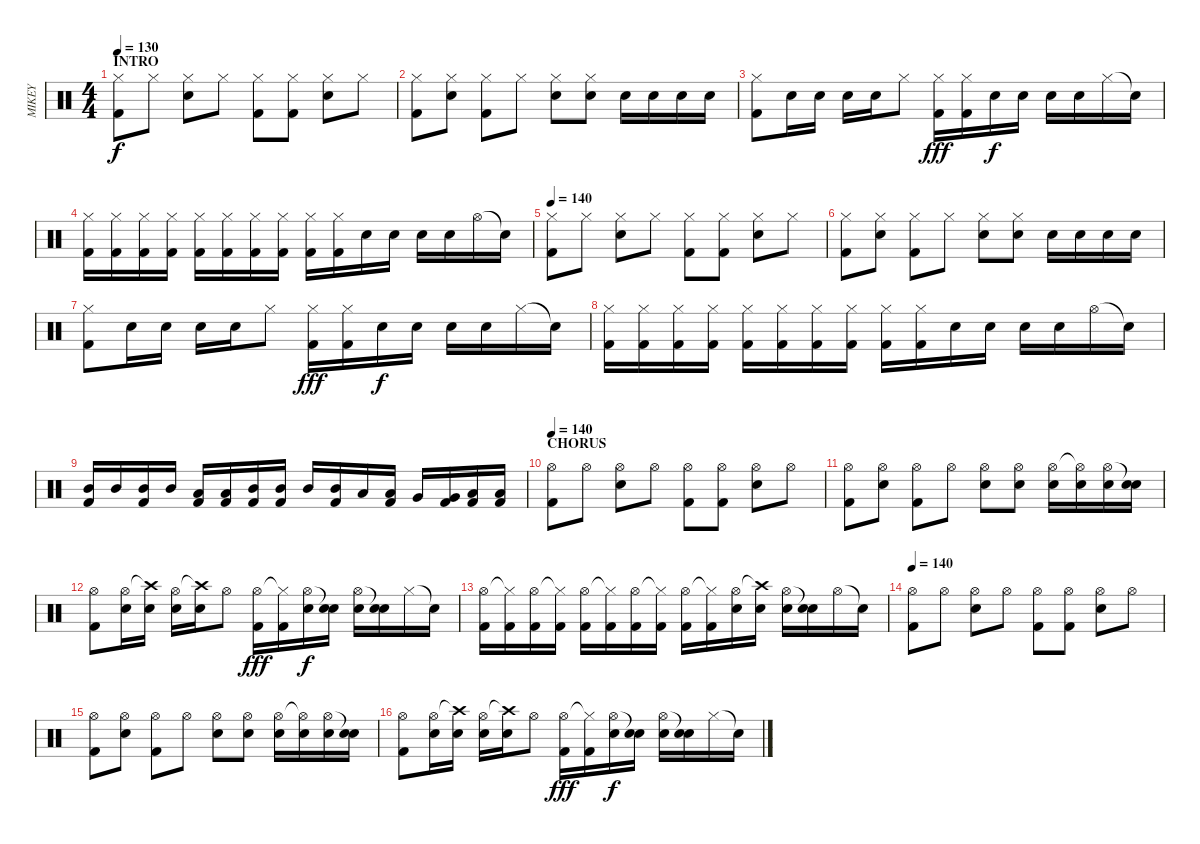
\track ("MIKEY" "MIKEY") {instrument percussion}
\staff {score}
\articulation defaults
\ts (4 4)
\section ("" "INTRO")
\tempo 130
\tempo 140
\tempo 130
\clef neutral
\ks c
("Hi-Hat (closed)" "Kick (hit) 2").8{dy f} "Hi-Hat (closed)".8 ("Hi-Hat (closed)" "Electric Snare (hit)").8 "Hi-Hat (closed)".8 ("Hi-Hat (closed)" "Kick (hit) 2").8 ("Hi-Hat (closed)" "Kick (hit) 2").8 ("Hi-Hat (closed)" "Electric Snare (hit)").8 "Hi-Hat (closed)".8 |
("Hi-Hat (closed)" "Kick (hit) 2").8 ("Hi-Hat (closed)" "Electric Snare (hit)").8 ("Hi-Hat (closed)" "Kick (hit) 2").8 "Hi-Hat (closed)".8 ("Hi-Hat (closed)" "Electric Snare (hit)").8 ("Hi-Hat (closed)" "Electric Snare (hit)").8 "Electric Snare (hit)".16 "Electric Snare (hit)".16 "Electric Snare (hit)".16 "Electric Snare (hit)".16 |
("Hi-Hat (closed)" "Kick (hit) 2").8 "Electric Snare (hit)".16 "Electric Snare (hit)".16 "Electric Snare (hit)".16 "Electric Snare (hit)".16 "Hi-Hat (closed)".8 ("Hi-Hat (closed)" "Kick (hit) 2").16{dy fff} ("Hi-Hat (closed)" "Kick (hit) 2").16 "Electric Snare (hit)".16{dy f} "Electric Snare (hit)".16 "Electric Snare (hit)".16 "Electric Snare (hit)".16 "Hi-Hat (closed)".16 "Snare (hit)"{t}.16 |
("Hi-Hat (closed)" "Kick (hit) 2").16 ("Hi-Hat (closed)" "Kick (hit) 2").16 ("Hi-Hat (closed)" "Kick (hit) 2").16 ("Hi-Hat (closed)" "Kick (hit) 2").16 ("Hi-Hat (closed)" "Kick (hit) 2").16 ("Hi-Hat (closed)" "Kick (hit) 2").16 ("Hi-Hat (closed)" "Kick (hit) 2").16 ("Hi-Hat (closed)" "Kick (hit) 2").16 ("Hi-Hat (closed)" "Kick (hit) 2").16 ("Hi-Hat (closed)" "Kick (hit) 2").16 "Electric Snare (hit)".16 "Electric Snare (hit)".16 "Electric Snare (hit)".16 "Electric Snare (hit)".16 "Hi-Hat (open)".16 "Snare (hit)"{t}.16 |
\tempo 140
("Hi-Hat (closed)" "Kick (hit) 2").8 "Hi-Hat (closed)".8 ("Hi-Hat (closed)" "Electric Snare (hit)").8 "Hi-Hat (closed)".8 ("Hi-Hat (closed)" "Kick (hit) 2").8 ("Hi-Hat (closed)" "Kick (hit) 2").8 ("Hi-Hat (closed)" "Electric Snare (hit)").8 "Hi-Hat (closed)".8 |
("Hi-Hat (closed)" "Kick (hit) 2").8 ("Hi-Hat (closed)" "Electric Snare (hit)").8 ("Hi-Hat (closed)" "Kick (hit) 2").8 "Hi-Hat (closed)".8 ("Hi-Hat (closed)" "Electric Snare (hit)").8 ("Hi-Hat (closed)" "Electric Snare (hit)").8 "Electric Snare (hit)".16 "Electric Snare (hit)".16 "Electric Snare (hit)".16 "Electric Snare (hit)".16 |
("Hi-Hat (closed)" "Kick (hit) 2").8 "Electric Snare (hit)".16 "Electric Snare (hit)".16 "Electric Snare (hit)".16 "Electric Snare (hit)".16 "Hi-Hat (closed)".8 ("Hi-Hat (closed)" "Kick (hit) 2").16{dy fff} ("Hi-Hat (closed)" "Kick (hit) 2").16 "Electric Snare (hit)".16{dy f} "Electric Snare (hit)".16 "Electric Snare (hit)".16 "Electric Snare (hit)".16 "Hi-Hat (closed)".16 "Snare (hit)"{t}.16 |
("Hi-Hat (closed)" "Kick (hit) 2").16 ("Hi-Hat (closed)" "Kick (hit) 2").16 ("Hi-Hat (closed)" "Kick (hit) 2").16 ("Hi-Hat (closed)" "Kick (hit) 2").16 ("Hi-Hat (closed)" "Kick (hit) 2").16 ("Hi-Hat (closed)" "Kick (hit) 2").16 ("Hi-Hat (closed)" "Kick (hit) 2").16 ("Hi-Hat (closed)" "Kick (hit) 2").16 ("Hi-Hat (closed)" "Kick (hit) 2").16 ("Hi-Hat (closed)" "Kick (hit) 2").16 "Electric Snare (hit)".16 "Electric Snare (hit)".16 "Electric Snare (hit)".16 "Electric Snare (hit)".16 "Hi-Hat (open)".16 "Snare (hit)"{t}.16 |
("Kick (hit) 2" "Mid Tom (hit)").16 "Mid Tom (hit)".16 ("Kick (hit) 2" "Mid Tom (hit)").16 "Mid Tom (hit)".16 ("Kick (hit) 2" "Low Tom (hit)").16 ("Kick (hit) 2" "Low Tom (hit)").16 ("Kick (hit) 2" "Mid Tom (hit)").16 ("Kick (hit) 2" "Mid Tom (hit)").16 "Mid Tom (hit)".16 ("Kick (hit) 2" "Mid Tom (hit)").16 "Low Tom (hit)".16 ("Kick (hit) 2" "Low Tom (hit)").16 "Very Low Tom (hit)".16 ("Kick (hit) 2" "Very Low Tom (hit)").16 ("Kick (hit) 2" "Low Floor Tom (hit)").16 ("Kick (hit) 2" "Low Floor Tom (hit)").16 |
\section ("" "CHORUS")
\tempo 140
("Hi-Hat (open)" "Kick (hit) 2").8 "Hi-Hat (open)".8 ("Hi-Hat (open)" "Electric Snare (hit)").8 "Hi-Hat (open)".8 ("Hi-Hat (open)" "Kick (hit) 2").8 ("Hi-Hat (open)" "Kick (hit) 2").8 ("Hi-Hat (open)" "Electric Snare (hit)").8 "Hi-Hat (open)".8 |
("Hi-Hat (open)" "Kick (hit) 2").8 ("Hi-Hat (open)" "Electric Snare (hit)").8 ("Hi-Hat (open)" "Kick (hit) 2").8 "Hi-Hat (open)".8 ("Hi-Hat (open)" "Electric Snare (hit)").8 ("Hi-Hat (open)" "Electric Snare (hit)").8 ("Hi-Hat (open)" "Electric Snare (hit)").16 ("Hi-Hat (open)"{t} "Electric Snare (hit)").16 ("Hi-Hat (open)" "Electric Snare (hit)").16 ("Snare (hit)"{t} "Electric Snare (hit)").16 |
("Hi-Hat (open)" "Kick (hit) 2").8 ("Hi-Hat (open)" "Electric Snare (hit)").16 ("Crash high (hit)"{t} "Electric Snare (hit)").16 ("Hi-Hat (open)" "Electric Snare (hit)").16 ("Crash high (hit)"{t} "Electric Snare (hit)").16 "Hi-Hat (open)".8 ("Hi-Hat (open)" "Kick (hit) 2").16{dy fff} ("Hi-Hat (closed)"{t} "Kick (hit) 2").16 ("Hi-Hat (open)" "Electric Snare (hit)").16{dy f} ("Snare (hit)"{t} "Electric Snare (hit)").16 ("Hi-Hat (open)" "Electric Snare (hit)").16 ("Snare (hit)"{t} "Electric Snare (hit)").16 "Hi-Hat (closed)".16 "Snare (hit)"{t}.16 |
("Hi-Hat (open)" "Kick (hit) 2").16 ("Hi-Hat (closed)"{t} "Kick (hit) 2").16 ("Hi-Hat (open)" "Kick (hit) 2").16 ("Hi-Hat (closed)"{t} "Kick (hit) 2").16 ("Hi-Hat (open)" "Kick (hit) 2").16 ("Hi-Hat (closed)"{t} "Kick (hit) 2").16 ("Hi-Hat (open)" "Kick (hit) 2").16 ("Hi-Hat (closed)"{t} "Kick (hit) 2").16 ("Hi-Hat (open)" "Kick (hit) 2").16 ("Hi-Hat (closed)"{t} "Kick (hit) 2").16 ("Hi-Hat (open)" "Electric Snare (hit)").16 ("Crash high (hit)"{t} "Electric Snare (hit)").16 ("Hi-Hat (open)" "Electric Snare (hit)").16 ("Snare (hit)"{t} "Electric Snare (hit)").16 "Hi-Hat (open)".16 "Snare (hit)"{t}.16 |
\tempo 140
("Hi-Hat (open)" "Kick (hit) 2").8 "Hi-Hat (open)".8 ("Hi-Hat (open)" "Electric Snare (hit)").8 "Hi-Hat (open)".8 ("Hi-Hat (open)" "Kick (hit) 2").8 ("Hi-Hat (open)" "Kick (hit) 2").8 ("Hi-Hat (open)" "Electric Snare (hit)").8 "Hi-Hat (open)".8 |
("Hi-Hat (open)" "Kick (hit) 2").8 ("Hi-Hat (open)" "Electric Snare (hit)").8 ("Hi-Hat (open)" "Kick (hit) 2").8 "Hi-Hat (open)".8 ("Hi-Hat (open)" "Electric Snare (hit)").8 ("Hi-Hat (open)" "Electric Snare (hit)").8 ("Hi-Hat (open)" "Electric Snare (hit)").16 ("Hi-Hat (open)"{t} "Electric Snare (hit)").16 ("Hi-Hat (open)" "Electric Snare (hit)").16 ("Snare (hit)"{t} "Electric Snare (hit)").16 |
("Hi-Hat (open)" "Kick (hit) 2").8 ("Hi-Hat (open)" "Electric Snare (hit)").16 ("Crash high (hit)"{t} "Electric Snare (hit)").16 ("Hi-Hat (open)" "Electric Snare (hit)").16 ("Crash high (hit)"{t} "Electric Snare (hit)").16 "Hi-Hat (open)".8 ("Hi-Hat (open)" "Kick (hit) 2").16{dy fff} ("Hi-Hat (closed)"{t} "Kick (hit) 2").16 ("Hi-Hat (open)" "Electric Snare (hit)").16{dy f} ("Snare (hit)"{t} "Electric Snare (hit)").16 ("Hi-Hat (open)" "Electric Snare (hit)").16 ("Snare (hit)"{t} "Electric Snare (hit)").16 "Hi-Hat (closed)".16 "Snare (hit)"{t}.16
